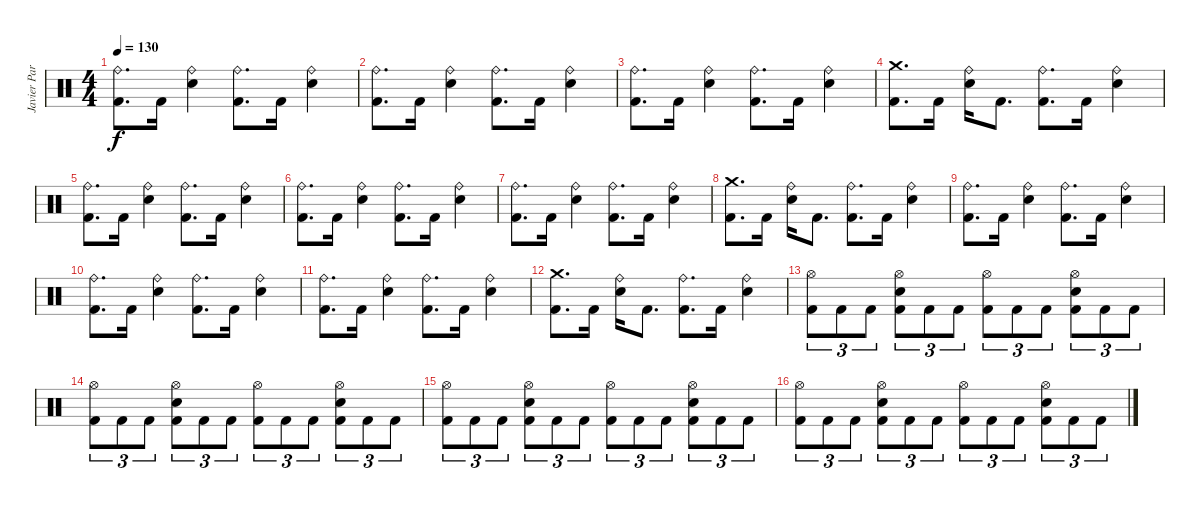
\track ("Javier Partida" "Javier Par") {instrument percussion}
\staff {score}
\articulation defaults
\ts (4 4)
\tempo 130
\clef neutral
\ks c
("Ride (bell)" "Kick (hit) 2").8{d dy f} "Kick (hit) 2".16 ("Ride (bell)" "Electric Snare (hit)").4 ("Ride (bell)" "Kick (hit) 2").8{d} "Kick (hit) 2".16 ("Ride (bell)" "Electric Snare (hit)").4 |
("Ride (bell)" "Kick (hit) 2").8{d} "Kick (hit) 2".16 ("Ride (bell)" "Electric Snare (hit)").4 ("Ride (bell)" "Kick (hit) 2").8{d} "Kick (hit) 2".16 ("Ride (bell)" "Electric Snare (hit)").4 |
("Ride (bell)" "Kick (hit) 2").8{d} "Kick (hit) 2".16 ("Ride (bell)" "Electric Snare (hit)").4 ("Ride (bell)" "Kick (hit) 2").8{d} "Kick (hit) 2".16 ("Ride (bell)" "Electric Snare (hit)").4 |
("Crash medium (hit)" "Kick (hit) 2").8{d} "Kick (hit) 2".16 ("Ride (bell)" "Electric Snare (hit)").16 "Kick (hit) 2".8{d} ("Ride (bell)" "Kick (hit) 2").8{d} "Kick (hit) 2".16 ("Ride (bell)" "Electric Snare (hit)").4 |
("Ride (bell)" "Kick (hit) 2").8{d} "Kick (hit) 2".16 ("Ride (bell)" "Electric Snare (hit)").4 ("Ride (bell)" "Kick (hit) 2").8{d} "Kick (hit) 2".16 ("Ride (bell)" "Electric Snare (hit)").4 |
("Ride (bell)" "Kick (hit) 2").8{d} "Kick (hit) 2".16 ("Ride (bell)" "Electric Snare (hit)").4 ("Ride (bell)" "Kick (hit) 2").8{d} "Kick (hit) 2".16 ("Ride (bell)" "Electric Snare (hit)").4 |
("Ride (bell)" "Kick (hit) 2").8{d} "Kick (hit) 2".16 ("Ride (bell)" "Electric Snare (hit)").4 ("Ride (bell)" "Kick (hit) 2").8{d} "Kick (hit) 2".16 ("Ride (bell)" "Electric Snare (hit)").4 |
("Crash medium (hit)" "Kick (hit) 2").8{d} "Kick (hit) 2".16 ("Ride (bell)" "Electric Snare (hit)").16 "Kick (hit) 2".8{d} ("Ride (bell)" "Kick (hit) 2").8{d} "Kick (hit) 2".16 ("Ride (bell)" "Electric Snare (hit)").4 |
("Ride (bell)" "Kick (hit) 2").8{d} "Kick (hit) 2".16 ("Ride (bell)" "Electric Snare (hit)").4 ("Ride (bell)" "Kick (hit) 2").8{d} "Kick (hit) 2".16 ("Ride (bell)" "Electric Snare (hit)").4 |
("Ride (bell)" "Kick (hit) 2").8{d} "Kick (hit) 2".16 ("Ride (bell)" "Electric Snare (hit)").4 ("Ride (bell)" "Kick (hit) 2").8{d} "Kick (hit) 2".16 ("Ride (bell)" "Electric Snare (hit)").4 |
("Ride (bell)" "Kick (hit) 2").8{d} "Kick (hit) 2".16 ("Ride (bell)" "Electric Snare (hit)").4 ("Ride (bell)" "Kick (hit) 2").8{d} "Kick (hit) 2".16 ("Ride (bell)" "Electric Snare (hit)").4 |
("Crash medium (hit)" "Kick (hit) 2").8{d} "Kick (hit) 2".16 ("Ride (bell)" "Electric Snare (hit)").16 "Kick (hit) 2".8{d} ("Ride (bell)" "Kick (hit) 2").8{d} "Kick (hit) 2".16 ("Ride (bell)" "Electric Snare (hit)").4 |
("Hi-Hat (open)" "Kick (hit) 2").8{tu (3 2)} "Kick (hit) 2".8{tu (3 2)} "Kick (hit) 2".8{tu (3 2)} ("Hi-Hat (open)" "Electric Snare (hit)" "Kick (hit) 2").8{tu (3 2)} "Kick (hit) 2".8{tu (3 2)} "Kick (hit) 2".8{tu (3 2)} ("Hi-Hat (open)" "Kick (hit) 2").8{tu (3 2)} "Kick (hit) 2".8{tu (3 2)} "Kick (hit) 2".8{tu (3 2)} ("Hi-Hat (open)" "Electric Snare (hit)" "Kick (hit) 2").8{tu (3 2)} "Kick (hit) 2".8{tu (3 2)} "Kick (hit) 2".8{tu (3 2)} |
("Hi-Hat (open)" "Kick (hit) 2").8{tu (3 2)} "Kick (hit) 2".8{tu (3 2)} "Kick (hit) 2".8{tu (3 2)} ("Hi-Hat (open)" "Electric Snare (hit)" "Kick (hit) 2").8{tu (3 2)} "Kick (hit) 2".8{tu (3 2)} "Kick (hit) 2".8{tu (3 2)} ("Hi-Hat (open)" "Kick (hit) 2").8{tu (3 2)} "Kick (hit) 2".8{tu (3 2)} "Kick (hit) 2".8{tu (3 2)} ("Hi-Hat (open)" "Electric Snare (hit)" "Kick (hit) 2").8{tu (3 2)} "Kick (hit) 2".8{tu (3 2)} "Kick (hit) 2".8{tu (3 2)} |
("Hi-Hat (open)" "Kick (hit) 2").8{tu (3 2)} "Kick (hit) 2".8{tu (3 2)} "Kick (hit) 2".8{tu (3 2)} ("Hi-Hat (open)" "Electric Snare (hit)" "Kick (hit) 2").8{tu (3 2)} "Kick (hit) 2".8{tu (3 2)} "Kick (hit) 2".8{tu (3 2)} ("Hi-Hat (open)" "Kick (hit) 2").8{tu (3 2)} "Kick (hit) 2".8{tu (3 2)} "Kick (hit) 2".8{tu (3 2)} ("Hi-Hat (open)" "Electric Snare (hit)" "Kick (hit) 2").8{tu (3 2)} "Kick (hit) 2".8{tu (3 2)} "Kick (hit) 2".8{tu (3 2)} |
("Hi-Hat (open)" "Kick (hit) 2").8{tu (3 2)} "Kick (hit) 2".8{tu (3 2)} "Kick (hit) 2".8{tu (3 2)} ("Hi-Hat (open)" "Electric Snare (hit)" "Kick (hit) 2").8{tu (3 2)} "Kick (hit) 2".8{tu (3 2)} "Kick (hit) 2".8{tu (3 2)} ("Hi-Hat (open)" "Kick (hit) 2").8{tu (3 2)} "Kick (hit) 2".8{tu (3 2)} "Kick (hit) 2".8{tu (3 2)} ("Hi-Hat (open)" "Electric Snare (hit)" "Kick (hit) 2").8{tu (3 2)} "Kick (hit) 2".8{tu (3 2)} "Kick (hit) 2".8{tu (3 2)}
